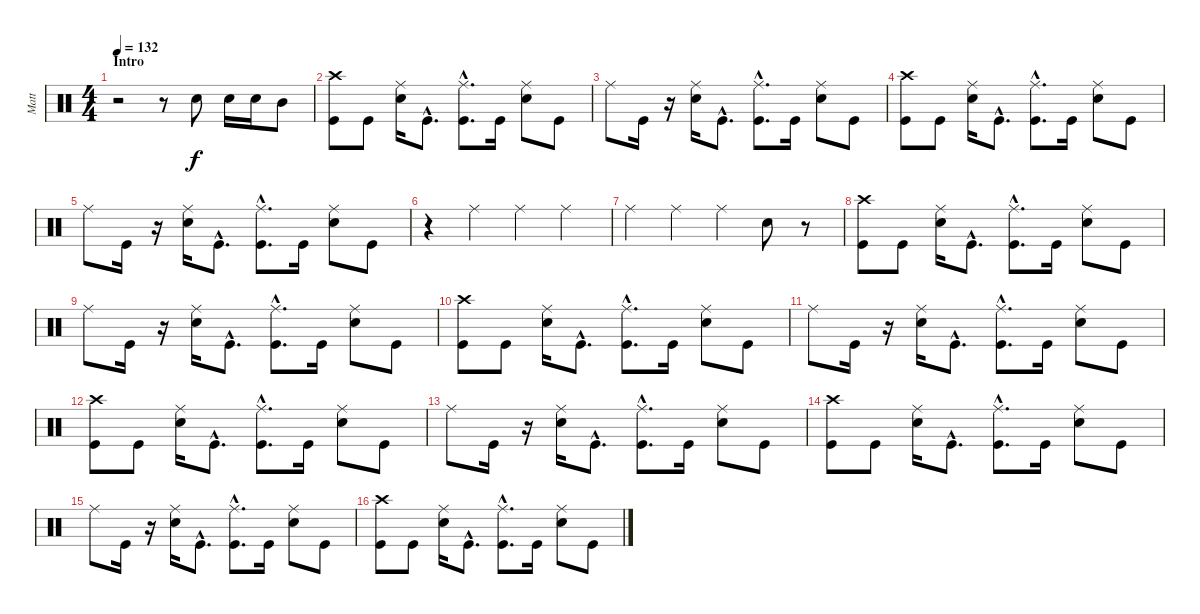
\track ("Matt" "Matt") {instrument percussion}
\staff {score}
\articulation defaults
\ts (4 4)
\section ("" "Intro")
\tempo 132
\clef neutral
\ks c
r.2{dy f} r.8 "Snare (hit) 2".8 "Snare (hit) 2".16 "Snare (hit) 2".16 "Mid Tom (hit)".8 |
("Kick (hit)" "Crash high (hit)").8 "Kick (hit)".8 ("Snare (hit) 2" "Ride (middle)").16 "Kick (hit)"{hac}.8{d} ("Ride (middle)" "Kick (hit)"{hac}).8{d} "Kick (hit)".16 ("Snare (hit) 2" "Ride (middle)").8 "Kick (hit)".8 |
"Ride (middle)".8 "Kick (hit)".16 r.16 ("Snare (hit) 2" "Ride (middle)").16 "Kick (hit)"{hac}.8{d} ("Ride (middle)" "Kick (hit)"{hac}).8{d} "Kick (hit)".16 ("Ride (middle)" "Snare (hit) 2").8 "Kick (hit)".8 |
("Crash high (hit)" "Kick (hit)").8 "Kick (hit)".8 ("Snare (hit) 2" "Ride (middle)").16 "Kick (hit)"{hac}.8{d} ("Kick (hit)"{hac} "Ride (middle)").8{d} "Kick (hit)".16 ("Ride (middle)" "Snare (hit) 2").8 "Kick (hit)".8 |
"Ride (middle)".8 "Kick (hit)".16 r.16 ("Ride (middle)" "Snare (hit) 2").16 "Kick (hit)"{hac}.8{d} ("Kick (hit)"{hac} "Ride (middle)").8{d} "Kick (hit)".16 ("Ride (middle)" "Snare (hit) 2").8 "Kick (hit)".8 |
r.4 "Ride (middle)".4 "Ride (middle)".4 "Ride (middle)".4 |
"Ride (middle)".4 "Ride (middle)".4 "Ride (middle)".4 "Electric Snare (hit)".8 r.8 |
("Kick (hit)" "Crash high (hit)").8 "Kick (hit)".8 ("Ride (middle)" "Snare (hit) 2").16 "Kick (hit)"{hac}.8{d} ("Kick (hit)"{hac} "Ride (middle)").8{d} "Kick (hit)".16 ("Snare (hit) 2" "Ride (middle)").8 "Kick (hit)".8 |
"Ride (middle)".8 "Kick (hit)".16 r.16 ("Ride (middle)" "Snare (hit) 2").16 "Kick (hit)"{hac}.8{d} ("Kick (hit)"{hac} "Ride (middle)").8{d} "Kick (hit)".16 ("Snare (hit) 2" "Ride (middle)").8 "Kick (hit)".8 |
("Kick (hit)" "Crash high (hit)").8 "Kick (hit)".8 ("Snare (hit) 2" "Ride (middle)").16 "Kick (hit)"{hac}.8{d} ("Ride (middle)" "Kick (hit)"{hac}).8{d} "Kick (hit)".16 ("Snare (hit) 2" "Ride (middle)").8 "Kick (hit)".8 |
"Ride (middle)".8 "Kick (hit)".16 r.16 ("Snare (hit) 2" "Ride (middle)").16 "Kick (hit)"{hac}.8{d} ("Ride (middle)" "Kick (hit)"{hac}).8{d} "Kick (hit)".16 ("Snare (hit) 2" "Ride (middle)").8 "Kick (hit)".8 |
("Kick (hit)" "Crash high (hit)").8 "Kick (hit)".8 ("Snare (hit) 2" "Ride (middle)").16 "Kick (hit)"{hac}.8{d} ("Ride (middle)" "Kick (hit)"{hac}).8{d} "Kick (hit)".16 ("Ride (middle)" "Snare (hit) 2").8 "Kick (hit)".8 |
"Ride (middle)".8 "Kick (hit)".16 r.16 ("Snare (hit) 2" "Ride (middle)").16 "Kick (hit)"{hac}.8{d} ("Ride (middle)" "Kick (hit)"{hac}).8{d} "Kick (hit)".16 ("Ride (middle)" "Snare (hit) 2").8 "Kick (hit)".8 |
("Kick (hit)" "Crash high (hit)").8 "Kick (hit)".8 ("Ride (middle)" "Snare (hit) 2").16 "Kick (hit)"{hac}.8{d} ("Kick (hit)"{hac} "Ride (middle)").8{d} "Kick (hit)".16 ("Ride (middle)" "Snare (hit) 2").8 "Kick (hit)".8 |
"Ride (middle)".8 "Kick (hit)".16 r.16 ("Snare (hit) 2" "Ride (middle)").16 "Kick (hit)"{hac}.8{d} ("Ride (middle)" "Kick (hit)"{hac}).8{d} "Kick (hit)".16 ("Ride (middle)" "Snare (hit) 2").8 "Kick (hit)".8 |
("Crash high (hit)" "Kick (hit)").8 "Kick (hit)".8 ("Snare (hit) 2" "Ride (middle)").16 "Kick (hit)"{hac}.8{d} ("Kick (hit)"{hac} "Ride (middle)").8{d} "Kick (hit)".16 ("Snare (hit) 2" "Ride (middle)").8 "Kick (hit)".8
